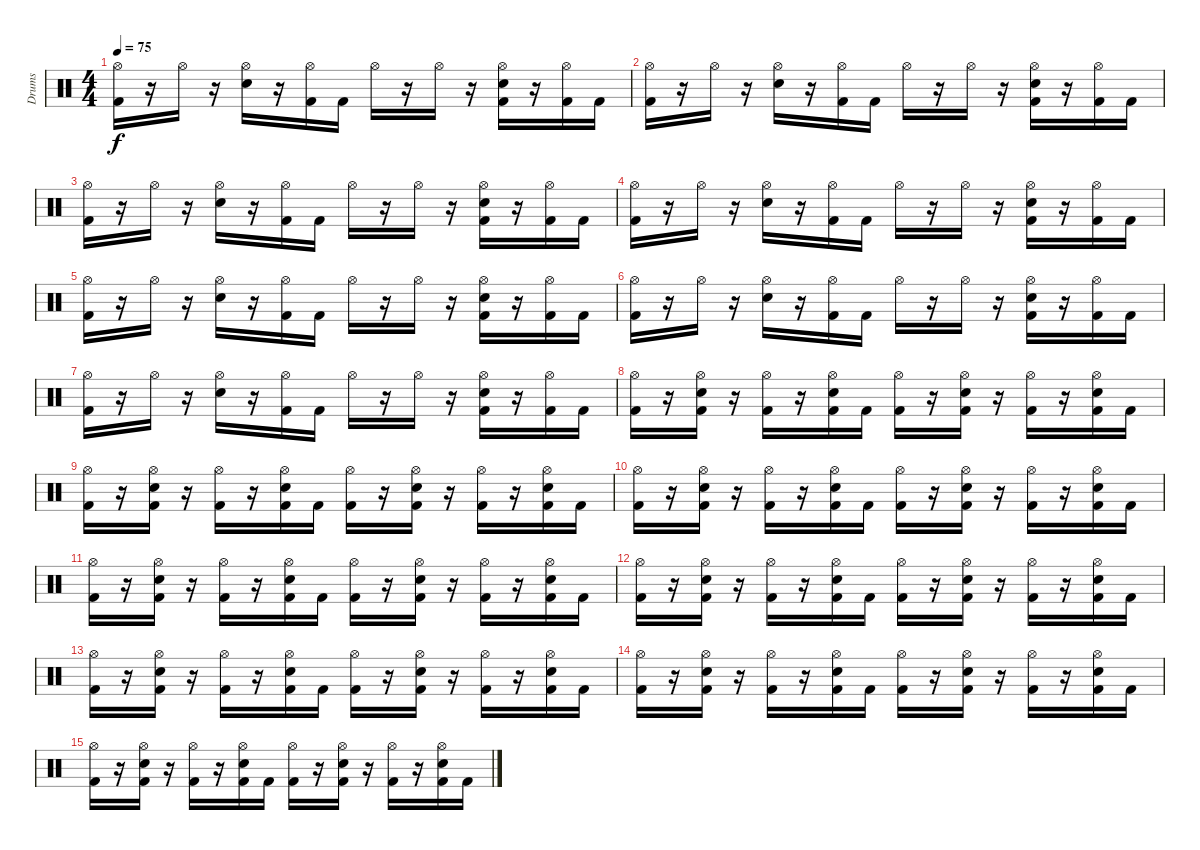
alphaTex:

\track ("Drums" "Drums") {instrument percussion}
\staff {score}
\articulation defaults
\ts (4 4)
\tempo 75
\clef neutral
\ks c
("Hi-Hat (open)" "Kick (hit) 2").16{dy f} r.16 "Hi-Hat (open)".16 r.16 ("Hi-Hat (open)" "Snare (hit) 2").16 r.16 ("Hi-Hat (open)" "Kick (hit) 2").16 "Kick (hit) 2".16 "Hi-Hat (open)".16 r.16 "Hi-Hat (open)".16 r.16 ("Hi-Hat (open)" "Snare (hit) 2" "Kick (hit) 2").16 r.16 ("Hi-Hat (open)" "Kick (hit) 2").16 "Kick (hit) 2".16 |
("Hi-Hat (open)" "Kick (hit) 2").16 r.16 "Hi-Hat (open)".16 r.16 ("Hi-Hat (open)" "Snare (hit) 2").16 r.16 ("Hi-Hat (open)" "Kick (hit) 2").16 "Kick (hit) 2".16 "Hi-Hat (open)".16 r.16 "Hi-Hat (open)".16 r.16 ("Hi-Hat (open)" "Snare (hit) 2" "Kick (hit) 2").16 r.16 ("Hi-Hat (open)" "Kick (hit) 2").16 "Kick (hit) 2".16 |
("Hi-Hat (open)" "Kick (hit) 2").16 r.16 "Hi-Hat (open)".16 r.16 ("Hi-Hat (open)" "Snare (hit) 2").16 r.16 ("Hi-Hat (open)" "Kick (hit) 2").16 "Kick (hit) 2".16 "Hi-Hat (open)".16 r.16 "Hi-Hat (open)".16 r.16 ("Hi-Hat (open)" "Snare (hit) 2" "Kick (hit) 2").16 r.16 ("Hi-Hat (open)" "Kick (hit) 2").16 "Kick (hit) 2".16 |
("Hi-Hat (open)" "Kick (hit) 2").16 r.16 "Hi-Hat (open)".16 r.16 ("Hi-Hat (open)" "Snare (hit) 2").16 r.16 ("Hi-Hat (open)" "Kick (hit) 2").16 "Kick (hit) 2".16 "Hi-Hat (open)".16 r.16 "Hi-Hat (open)".16 r.16 ("Hi-Hat (open)" "Snare (hit) 2" "Kick (hit) 2").16 r.16 ("Hi-Hat (open)" "Kick (hit) 2").16 "Kick (hit) 2".16 |
("Hi-Hat (open)" "Kick (hit) 2").16 r.16 "Hi-Hat (open)".16 r.16 ("Hi-Hat (open)" "Snare (hit) 2").16 r.16 ("Hi-Hat (open)" "Kick (hit) 2").16 "Kick (hit) 2".16 "Hi-Hat (open)".16 r.16 "Hi-Hat (open)".16 r.16 ("Hi-Hat (open)" "Snare (hit) 2" "Kick (hit) 2").16 r.16 ("Hi-Hat (open)" "Kick (hit) 2").16 "Kick (hit) 2".16 |
("Hi-Hat (open)" "Kick (hit) 2").16 r.16 "Hi-Hat (open)".16 r.16 ("Hi-Hat (open)" "Snare (hit) 2").16 r.16 ("Hi-Hat (open)" "Kick (hit) 2").16 "Kick (hit) 2".16 "Hi-Hat (open)".16 r.16 "Hi-Hat (open)".16 r.16 ("Hi-Hat (open)" "Snare (hit) 2" "Kick (hit) 2").16 r.16 ("Hi-Hat (open)" "Kick (hit) 2").16 "Kick (hit) 2".16 |
("Hi-Hat (open)" "Kick (hit) 2").16 r.16 "Hi-Hat (open)".16 r.16 ("Hi-Hat (open)" "Snare (hit) 2").16 r.16 ("Hi-Hat (open)" "Kick (hit) 2").16 "Kick (hit) 2".16 "Hi-Hat (open)".16 r.16 "Hi-Hat (open)".16 r.16 ("Hi-Hat (open)" "Snare (hit) 2" "Kick (hit) 2").16 r.16 ("Hi-Hat (open)" "Kick (hit) 2").16 "Kick (hit) 2".16 |
("Hi-Hat (open)" "Kick (hit) 2").16 r.16 ("Hi-Hat (open)" "Snare (hit) 2" "Kick (hit) 2").16 r.16 ("Hi-Hat (open)" "Kick (hit) 2").16 r.16 ("Hi-Hat (open)" "Snare (hit) 2" "Kick (hit) 2").16 "Kick (hit) 2".16 ("Hi-Hat (open)" "Kick (hit) 2").16 r.16 ("Hi-Hat (open)" "Snare (hit) 2" "Kick (hit) 2").16 r.16 ("Hi-Hat (open)" "Kick (hit) 2").16 r.16 ("Hi-Hat (open)" "Snare (hit) 2" "Kick (hit) 2").16 "Kick (hit) 2".16 |
("Hi-Hat (open)" "Kick (hit) 2").16 r.16 ("Hi-Hat (open)" "Snare (hit) 2" "Kick (hit) 2").16 r.16 ("Hi-Hat (open)" "Kick (hit) 2").16 r.16 ("Hi-Hat (open)" "Snare (hit) 2" "Kick (hit) 2").16 "Kick (hit) 2".16 ("Hi-Hat (open)" "Kick (hit) 2").16 r.16 ("Hi-Hat (open)" "Snare (hit) 2" "Kick (hit) 2").16 r.16 ("Hi-Hat (open)" "Kick (hit) 2").16 r.16 ("Hi-Hat (open)" "Snare (hit) 2" "Kick (hit) 2").16 "Kick (hit) 2".16 |
("Hi-Hat (open)" "Kick (hit) 2").16 r.16 ("Hi-Hat (open)" "Snare (hit) 2" "Kick (hit) 2").16 r.16 ("Hi-Hat (open)" "Kick (hit) 2").16 r.16 ("Hi-Hat (open)" "Snare (hit) 2" "Kick (hit) 2").16 "Kick (hit) 2".16 ("Hi-Hat (open)" "Kick (hit) 2").16 r.16 ("Hi-Hat (open)" "Snare (hit) 2" "Kick (hit) 2").16 r.16 ("Hi-Hat (open)" "Kick (hit) 2").16 r.16 ("Hi-Hat (open)" "Snare (hit) 2" "Kick (hit) 2").16 "Kick (hit) 2".16 |
("Hi-Hat (open)" "Kick (hit) 2").16 r.16 ("Hi-Hat (open)" "Snare (hit) 2" "Kick (hit) 2").16 r.16 ("Hi-Hat (open)" "Kick (hit) 2").16 r.16 ("Hi-Hat (open)" "Snare (hit) 2" "Kick (hit) 2").16 "Kick (hit) 2".16 ("Hi-Hat (open)" "Kick (hit) 2").16 r.16 ("Hi-Hat (open)" "Snare (hit) 2" "Kick (hit) 2").16 r.16 ("Hi-Hat (open)" "Kick (hit) 2").16 r.16 ("Hi-Hat (open)" "Snare (hit) 2" "Kick (hit) 2").16 "Kick (hit) 2".16 |
("Hi-Hat (open)" "Kick (hit) 2").16 r.16 ("Hi-Hat (open)" "Snare (hit) 2" "Kick (hit) 2").16 r.16 ("Hi-Hat (open)" "Kick (hit) 2").16 r.16 ("Hi-Hat (open)" "Snare (hit) 2" "Kick (hit) 2").16 "Kick (hit) 2".16 ("Hi-Hat (open)" "Kick (hit) 2").16 r.16 ("Hi-Hat (open)" "Snare (hit) 2" "Kick (hit) 2").16 r.16 ("Hi-Hat (open)" "Kick (hit) 2").16 r.16 ("Hi-Hat (open)" "Snare (hit) 2" "Kick (hit) 2").16 "Kick (hit) 2".16 |
("Hi-Hat (open)" "Kick (hit) 2").16 r.16 ("Hi-Hat (open)" "Snare (hit) 2" "Kick (hit) 2").16 r.16 ("Hi-Hat (open)" "Kick (hit) 2").16 r.16 ("Hi-Hat (open)" "Snare (hit) 2" "Kick (hit) 2").16 "Kick (hit) 2".16 ("Hi-Hat (open)" "Kick (hit) 2").16 r.16 ("Hi-Hat (open)" "Snare (hit) 2" "Kick (hit) 2").16 r.16 ("Hi-Hat (open)" "Kick (hit) 2").16 r.16 ("Hi-Hat (open)" "Snare (hit) 2" "Kick (hit) 2").16 "Kick (hit) 2".16 |
("Hi-Hat (open)" "Kick (hit) 2").16 r.16 ("Hi-Hat (open)" "Snare (hit) 2" "Kick (hit) 2").16 r.16 ("Hi-Hat (open)" "Kick (hit) 2").16 r.16 ("Hi-Hat (open)" "Snare (hit) 2" "Kick (hit) 2").16 "Kick (hit) 2".16 ("Hi-Hat (open)" "Kick (hit) 2").16 r.16 ("Hi-Hat (open)" "Snare (hit) 2" "Kick (hit) 2").16 r.16 ("Hi-Hat (open)" "Kick (hit) 2").16 r.16 ("Hi-Hat (open)" "Snare (hit) 2" "Kick (hit) 2").16 "Kick (hit) 2".16 |
("Hi-Hat (open)" "Kick (hit) 2").16 r.16 ("Hi-Hat (open)" "Snare (hit) 2" "Kick (hit) 2").16 r.16 ("Hi-Hat (open)" "Kick (hit) 2").16 r.16 ("Hi-Hat (open)" "Snare (hit) 2" "Kick (hit) 2").16 "Kick (hit) 2".16 ("Hi-Hat (open)" "Kick (hit) 2").16 r.16 ("Hi-Hat (open)" "Snare (hit) 2" "Kick (hit) 2").16 r.16 ("Hi-Hat (open)" "Kick (hit) 2").16 r.16 ("Hi-Hat (open)" "Snare (hit) 2" "Kick (hit) 2").16 "Kick (hit) 2".16
